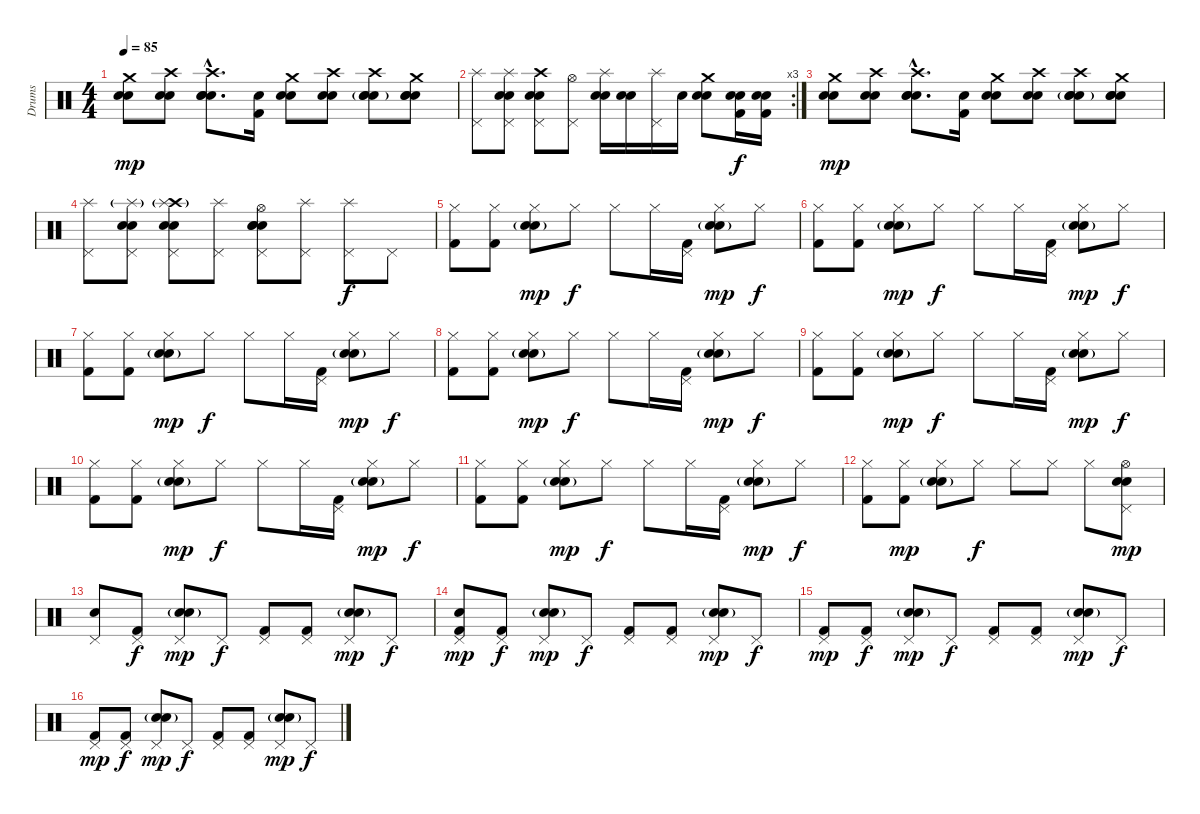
\track ("Drums" "Drums") {instrument percussion}
\staff {score}
\articulation defaults
\ts (4 4)
\tempo 85
\clef neutral
\ks c
("Crash medium (hit)" "Electric Snare (hit)" "Snare (hit) 2").8{dy mp} ("Crash high (hit)" "Electric Snare (hit)" "Snare (hit) 2").8 ("Electric Snare (hit)"{hac} "Electric Snare (hit)"{hac} "Snare (hit) 2"{hac} "Crash high (hit)").8{d} ("Electric Snare (hit)" "Kick (hit) 2").16 ("Crash medium (hit)" "Electric Snare (hit)" "Snare (hit) 2").8 ("Crash high (hit)" "Electric Snare (hit)" "Snare (hit) 2").8 ("Crash high (hit)" "Electric Snare (hit)" "Electric Snare (hit)" "Snare (hit) 2"{g}).8 ("Electric Snare (hit)" "Electric Snare (hit)" "Snare (hit) 2" "Crash medium (hit)").8 |
\rc 3
("Pedal Hi-Hat (hit)" "Splash (hit)").8 ("Pedal Hi-Hat (hit)" "Electric Snare (hit)" "Snare (hit) 2" "Splash (hit)").8 ("Pedal Hi-Hat (hit)" "Electric Snare (hit)" "Electric Snare (hit)" "Crash high (hit)").8 ("Pedal Hi-Hat (hit)" "Hi-Hat (open)").8 ("Electric Snare (hit)" "Electric Snare (hit)" "Splash (hit)").16 ("Electric Snare (hit)" "Snare (hit) 2").16 ("Pedal Hi-Hat (hit)" "Splash (hit)").16 "Electric Snare (hit)".16 ("Crash medium (hit)" "Electric Snare (hit)" "Snare (hit) 2").8 ("Electric Snare (hit)" "Electric Snare (hit)" "Kick (hit) 2").16{dy f} ("Electric Snare (hit)" "Electric Snare (hit)" "Kick (hit) 2").16 |
("Crash medium (hit)" "Electric Snare (hit)" "Snare (hit) 2").8{dy mp} ("Crash high (hit)" "Electric Snare (hit)" "Snare (hit) 2").8 ("Electric Snare (hit)"{hac} "Electric Snare (hit)"{hac} "Snare (hit) 2"{hac} "Crash high (hit)").8{d} ("Electric Snare (hit)" "Kick (hit) 2").16 ("Crash medium (hit)" "Electric Snare (hit)" "Snare (hit) 2").8 ("Crash high (hit)" "Electric Snare (hit)" "Snare (hit) 2").8 ("Crash high (hit)" "Electric Snare (hit)" "Electric Snare (hit)" "Snare (hit) 2"{g}).8 ("Electric Snare (hit)" "Electric Snare (hit)" "Snare (hit) 2" "Crash medium (hit)").8 |
("Pedal Hi-Hat (hit)" "Splash (hit)").8 ("Pedal Hi-Hat (hit)" "Electric Snare (hit)" "Snare (hit) 2" "Splash (hit)"{g}).8 ("Pedal Hi-Hat (hit)" "Electric Snare (hit)" "Electric Snare (hit)" "Crash high (hit)" "Splash (hit)"{g}).8 ("Pedal Hi-Hat (hit)" "Splash (hit)").8 ("Pedal Hi-Hat (hit)" "Electric Snare (hit)" "Electric Snare (hit)" "Electric Snare (hit)" "Hi-Hat (open)").8 ("Pedal Hi-Hat (hit)" "Splash (hit)").8 ("Pedal Hi-Hat (hit)" "Splash (hit)").8{dy f} "Pedal Hi-Hat (hit)".8 |
("Hi-Hat (closed)" "Kick (hit) 2").8 ("Hi-Hat (closed)" "Kick (hit) 2").8 ("Hi-Hat (closed)" "Electric Snare (hit)" "Snare (hit) 2"{g}).8{dy mp} "Hi-Hat (closed)".8{dy f} "Hi-Hat (closed)".8 "Hi-Hat (closed)".16 ("Pedal Hi-Hat (hit)" "Kick (hit) 2").16 ("Hi-Hat (closed)" "Electric Snare (hit)" "Snare (hit) 2"{g}).8{dy mp} "Hi-Hat (closed)".8{dy f} |
("Hi-Hat (closed)" "Kick (hit) 2").8 ("Hi-Hat (closed)" "Kick (hit) 2").8 ("Hi-Hat (closed)" "Electric Snare (hit)" "Snare (hit) 2"{g}).8{dy mp} "Hi-Hat (closed)".8{dy f} "Hi-Hat (closed)".8 "Hi-Hat (closed)".16 ("Pedal Hi-Hat (hit)" "Kick (hit) 2").16 ("Hi-Hat (closed)" "Electric Snare (hit)" "Snare (hit) 2"{g}).8{dy mp} "Hi-Hat (closed)".8{dy f} |
("Hi-Hat (closed)" "Kick (hit) 2").8 ("Hi-Hat (closed)" "Kick (hit) 2").8 ("Hi-Hat (closed)" "Electric Snare (hit)" "Snare (hit) 2"{g}).8{dy mp} "Hi-Hat (closed)".8{dy f} "Hi-Hat (closed)".8 "Hi-Hat (closed)".16 ("Pedal Hi-Hat (hit)" "Kick (hit) 2").16 ("Hi-Hat (closed)" "Electric Snare (hit)" "Snare (hit) 2"{g}).8{dy mp} "Hi-Hat (closed)".8{dy f} |
("Hi-Hat (closed)" "Kick (hit) 2").8 ("Hi-Hat (closed)" "Kick (hit) 2").8 ("Hi-Hat (closed)" "Electric Snare (hit)" "Snare (hit) 2"{g}).8{dy mp} "Hi-Hat (closed)".8{dy f} "Hi-Hat (closed)".8 "Hi-Hat (closed)".16 ("Pedal Hi-Hat (hit)" "Kick (hit) 2").16 ("Hi-Hat (closed)" "Electric Snare (hit)" "Snare (hit) 2"{g}).8{dy mp} "Hi-Hat (closed)".8{dy f} |
("Hi-Hat (closed)" "Kick (hit) 2").8 ("Hi-Hat (closed)" "Kick (hit) 2").8 ("Hi-Hat (closed)" "Electric Snare (hit)" "Snare (hit) 2"{g}).8{dy mp} "Hi-Hat (closed)".8{dy f} "Hi-Hat (closed)".8 "Hi-Hat (closed)".16 ("Pedal Hi-Hat (hit)" "Kick (hit) 2").16 ("Hi-Hat (closed)" "Electric Snare (hit)" "Snare (hit) 2"{g}).8{dy mp} "Hi-Hat (closed)".8{dy f} |
("Hi-Hat (closed)" "Kick (hit) 2").8 ("Hi-Hat (closed)" "Kick (hit) 2").8 ("Hi-Hat (closed)" "Electric Snare (hit)" "Snare (hit) 2"{g}).8{dy mp} "Hi-Hat (closed)".8{dy f} "Hi-Hat (closed)".8 "Hi-Hat (closed)".16 ("Pedal Hi-Hat (hit)" "Kick (hit) 2").16 ("Hi-Hat (closed)" "Electric Snare (hit)" "Snare (hit) 2"{g}).8{dy mp} "Hi-Hat (closed)".8{dy f} |
("Hi-Hat (closed)" "Kick (hit) 2").8 ("Hi-Hat (closed)" "Kick (hit) 2").8 ("Hi-Hat (closed)" "Electric Snare (hit)" "Snare (hit) 2"{g}).8{dy mp} "Hi-Hat (closed)".8{dy f} "Hi-Hat (closed)".8 "Hi-Hat (closed)".16 ("Pedal Hi-Hat (hit)" "Kick (hit) 2").16 ("Hi-Hat (closed)" "Electric Snare (hit)" "Snare (hit) 2"{g}).8{dy mp} "Hi-Hat (closed)".8{dy f} |
("Hi-Hat (closed)" "Kick (hit) 2").8 ("Hi-Hat (closed)" "Kick (hit) 2").8{dy mp} ("Hi-Hat (closed)" "Electric Snare (hit)" "Snare (hit) 2"{g}).8 "Hi-Hat (closed)".8{dy f} "Hi-Hat (closed)".8 "Hi-Hat (closed)".8 "Hi-Hat (closed)".8 ("Pedal Hi-Hat (hit)" "Electric Snare (hit)" "Snare (hit) 2" "Hi-Hat (open)").8{dy mp} |
("Pedal Hi-Hat (hit)" "Electric Snare (hit)").8 ("Pedal Hi-Hat (hit)" "Kick (hit) 2").8{dy f} ("Pedal Hi-Hat (hit)" "Electric Snare (hit)" "Snare (hit) 2"{g}).8{dy mp} "Pedal Hi-Hat (hit)".8{dy f} ("Pedal Hi-Hat (hit)" "Kick (hit) 2").8 ("Pedal Hi-Hat (hit)" "Kick (hit) 2").8 ("Pedal Hi-Hat (hit)" "Electric Snare (hit)" "Snare (hit) 2"{g}).8{dy mp} "Pedal Hi-Hat (hit)".8{dy f} |
("Pedal Hi-Hat (hit)" "Electric Snare (hit)" "Kick (hit) 2").8{dy mp} ("Pedal Hi-Hat (hit)" "Kick (hit) 2").8{dy f} ("Pedal Hi-Hat (hit)" "Electric Snare (hit)" "Snare (hit) 2"{g}).8{dy mp} "Pedal Hi-Hat (hit)".8{dy f} ("Pedal Hi-Hat (hit)" "Kick (hit) 2").8 ("Pedal Hi-Hat (hit)" "Kick (hit) 2").8 ("Pedal Hi-Hat (hit)" "Electric Snare (hit)" "Snare (hit) 2"{g}).8{dy mp} "Pedal Hi-Hat (hit)".8{dy f} |
("Pedal Hi-Hat (hit)" "Kick (hit) 2").8{dy mp} ("Pedal Hi-Hat (hit)" "Kick (hit) 2").8{dy f} ("Pedal Hi-Hat (hit)" "Electric Snare (hit)" "Snare (hit) 2"{g}).8{dy mp} "Pedal Hi-Hat (hit)".8{dy f} ("Pedal Hi-Hat (hit)" "Kick (hit) 2").8 ("Pedal Hi-Hat (hit)" "Kick (hit) 2").8 ("Pedal Hi-Hat (hit)" "Electric Snare (hit)" "Snare (hit) 2"{g}).8{dy mp} "Pedal Hi-Hat (hit)".8{dy f} |
("Pedal Hi-Hat (hit)" "Kick (hit) 2").8{dy mp} ("Pedal Hi-Hat (hit)" "Kick (hit) 2").8{dy f} ("Pedal Hi-Hat (hit)" "Electric Snare (hit)" "Snare (hit) 2"{g}).8{dy mp} "Pedal Hi-Hat (hit)".8{dy f} ("Pedal Hi-Hat (hit)" "Kick (hit) 2").8 ("Pedal Hi-Hat (hit)" "Kick (hit) 2").8 ("Pedal Hi-Hat (hit)" "Electric Snare (hit)" "Snare (hit) 2"{g}).8{dy mp} "Pedal Hi-Hat (hit)".8{dy f}
